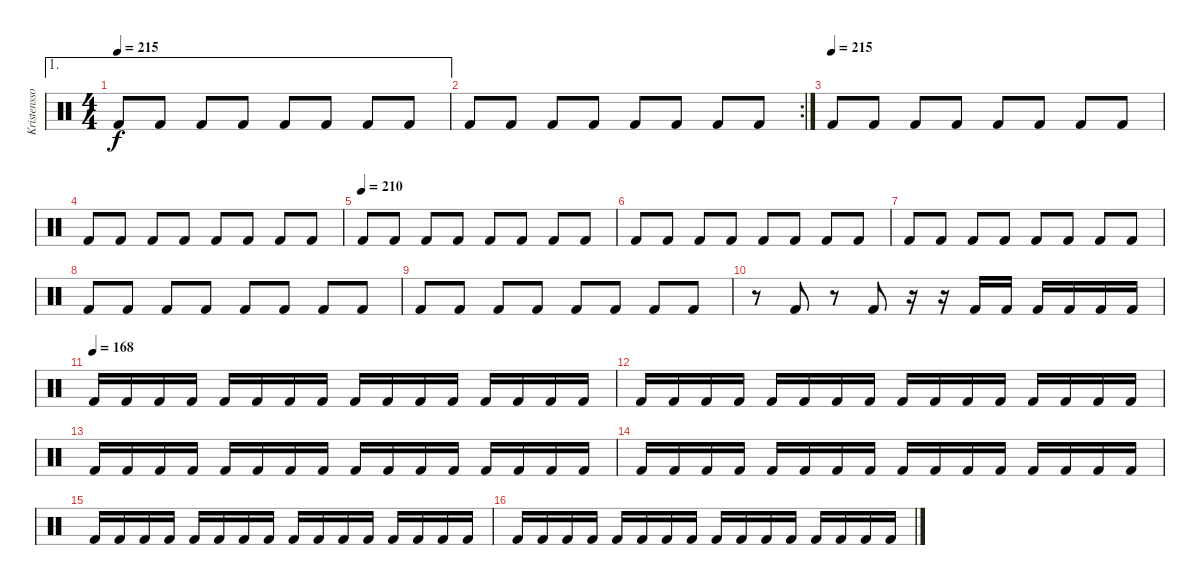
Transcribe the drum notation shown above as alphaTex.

\track ("Kristensson" "Kristensso") {instrument percussion}
\staff {score}
\articulation defaults
\ae 1
\ts (4 4)
\tempo 215
\clef neutral
\ks c "Kick (hit) 2".8{dy f} "Kick (hit) 2".8 "Kick (hit) 2".8 "Kick (hit) 2".8 "Kick (hit) 2".8 "Kick (hit) 2".8 "Kick (hit) 2".8 "Kick (hit) 2".8
|
\rc 2 "Kick (hit) 2".8 "Kick (hit) 2".8 "Kick (hit) 2".8 "Kick (hit) 2".8 "Kick (hit) 2".8 "Kick (hit) 2".8 "Kick (hit) 2".8 "Kick (hit) 2".8
|
\tempo (215)
"Kick (hit) 2".8 "Kick (hit) 2".8 "Kick (hit) 2".8 "Kick (hit) 2".8 "Kick (hit) 2".8 "Kick (hit) 2".8 "Kick (hit) 2".8 "Kick (hit) 2".8 |
"Kick (hit) 2".8 "Kick (hit) 2".8 "Kick (hit) 2".8 "Kick (hit) 2".8 "Kick (hit) 2".8 "Kick (hit) 2".8 "Kick (hit) 2".8 "Kick (hit) 2".8 |
\tempo (210)
"Kick (hit) 2".8 "Kick (hit) 2".8 "Kick (hit) 2".8 "Kick (hit) 2".8 "Kick (hit) 2".8 "Kick (hit) 2".8 "Kick (hit) 2".8 "Kick (hit) 2".8 |
"Kick (hit) 2".8 "Kick (hit) 2".8 "Kick (hit) 2".8 "Kick (hit) 2".8 "Kick (hit) 2".8 "Kick (hit) 2".8 "Kick (hit) 2".8 "Kick (hit) 2".8 |
"Kick (hit) 2".8 "Kick (hit) 2".8 "Kick (hit) 2".8 "Kick (hit) 2".8 "Kick (hit) 2".8 "Kick (hit) 2".8 "Kick (hit) 2".8 "Kick (hit) 2".8 |
"Kick (hit) 2".8 "Kick (hit) 2".8 "Kick (hit) 2".8 "Kick (hit) 2".8 "Kick (hit) 2".8 "Kick (hit) 2".8 "Kick (hit) 2".8 "Kick (hit) 2".8 |
"Kick (hit) 2".8 "Kick (hit) 2".8 "Kick (hit) 2".8 "Kick (hit) 2".8 "Kick (hit) 2".8 "Kick (hit) 2".8 "Kick (hit) 2".8 "Kick (hit) 2".8 |
r.8 "Kick (hit) 2".8 r.8 "Kick (hit) 2".8 r.16 r.16 "Kick (hit) 2".16 "Kick (hit) 2".16 "Kick (hit) 2".16 "Kick (hit) 2".16 "Kick (hit) 2".16 "Kick (hit) 2".16 |
\tempo (168)
"Kick (hit) 2".16 "Kick (hit) 2".16 "Kick (hit) 2".16 "Kick (hit) 2".16 "Kick (hit) 2".16 "Kick (hit) 2".16 "Kick (hit) 2".16 "Kick (hit) 2".16 "Kick (hit) 2".16 "Kick (hit) 2".16 "Kick (hit) 2".16 "Kick (hit) 2".16 "Kick (hit) 2".16 "Kick (hit) 2".16 "Kick (hit) 2".16 "Kick (hit) 2".16 |
"Kick (hit) 2".16 "Kick (hit) 2".16 "Kick (hit) 2".16 "Kick (hit) 2".16 "Kick (hit) 2".16 "Kick (hit) 2".16 "Kick (hit) 2".16 "Kick (hit) 2".16 "Kick (hit) 2".16 "Kick (hit) 2".16 "Kick (hit) 2".16 "Kick (hit) 2".16 "Kick (hit) 2".16 "Kick (hit) 2".16 "Kick (hit) 2".16 "Kick (hit) 2".16 |
"Kick (hit) 2".16 "Kick (hit) 2".16 "Kick (hit) 2".16 "Kick (hit) 2".16 "Kick (hit) 2".16 "Kick (hit) 2".16 "Kick (hit) 2".16 "Kick (hit) 2".16 "Kick (hit) 2".16 "Kick (hit) 2".16 "Kick (hit) 2".16 "Kick (hit) 2".16 "Kick (hit) 2".16 "Kick (hit) 2".16 "Kick (hit) 2".16 "Kick (hit) 2".16 |
"Kick (hit) 2".16 "Kick (hit) 2".16 "Kick (hit) 2".16 "Kick (hit) 2".16 "Kick (hit) 2".16 "Kick (hit) 2".16 "Kick (hit) 2".16 "Kick (hit) 2".16 "Kick (hit) 2".16 "Kick (hit) 2".16 "Kick (hit) 2".16 "Kick (hit) 2".16 "Kick (hit) 2".16 "Kick (hit) 2".16 "Kick (hit) 2".16 "Kick (hit) 2".16 |
"Kick (hit) 2".16 "Kick (hit) 2".16 "Kick (hit) 2".16 "Kick (hit) 2".16 "Kick (hit) 2".16 "Kick (hit) 2".16 "Kick (hit) 2".16 "Kick (hit) 2".16 "Kick (hit) 2".16 "Kick (hit) 2".16 "Kick (hit) 2".16 "Kick (hit) 2".16 "Kick (hit) 2".16 "Kick (hit) 2".16 "Kick (hit) 2".16 "Kick (hit) 2".16 |
"Kick (hit) 2".16 "Kick (hit) 2".16 "Kick (hit) 2".16 "Kick (hit) 2".16 "Kick (hit) 2".16 "Kick (hit) 2".16 "Kick (hit) 2".16 "Kick (hit) 2".16 "Kick (hit) 2".16 "Kick (hit) 2".16 "Kick (hit) 2".16 "Kick (hit) 2".16 "Kick (hit) 2".16 "Kick (hit) 2".16 "Kick (hit) 2".16 "Kick (hit) 2".16
